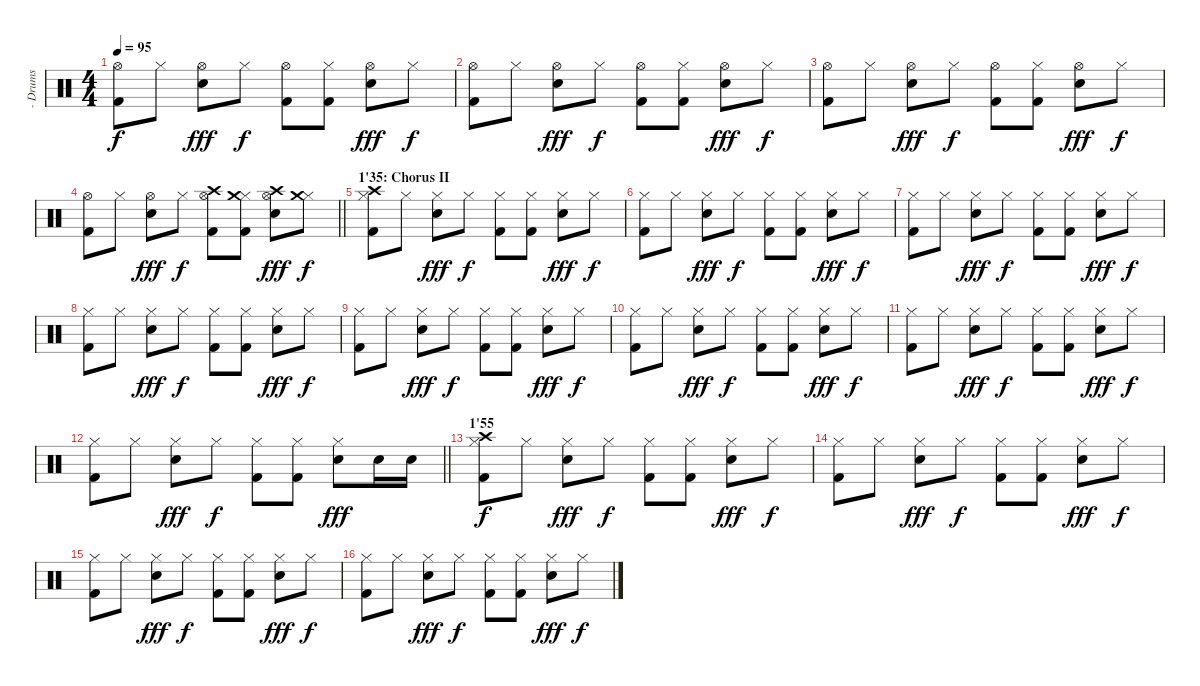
\track ("- Drums" "- Drums") {instrument percussion}
\staff {score}
\articulation defaults
\ts (4 4)
\tempo 95
\clef neutral
\ks c
("Hi-Hat (open)" "Kick (hit) 2").8{dy f} "Hi-Hat (closed)".8 ("Hi-Hat (open)" "Electric Snare (hit)").8{dy fff} "Hi-Hat (closed)".8{dy f} ("Hi-Hat (open)" "Kick (hit) 2").8 ("Hi-Hat (closed)" "Kick (hit) 2").8 ("Hi-Hat (open)" "Electric Snare (hit)").8{dy fff} "Hi-Hat (closed)".8{dy f} |
("Hi-Hat (open)" "Kick (hit) 2").8 "Hi-Hat (closed)".8 ("Hi-Hat (open)" "Electric Snare (hit)").8{dy fff} "Hi-Hat (closed)".8{dy f} ("Hi-Hat (open)" "Kick (hit) 2").8 ("Hi-Hat (closed)" "Kick (hit) 2").8 ("Hi-Hat (open)" "Electric Snare (hit)").8{dy fff} "Hi-Hat (closed)".8{dy f} |
("Hi-Hat (open)" "Kick (hit) 2").8 "Hi-Hat (closed)".8 ("Hi-Hat (open)" "Electric Snare (hit)").8{dy fff} "Hi-Hat (closed)".8{dy f} ("Hi-Hat (open)" "Kick (hit) 2").8 ("Hi-Hat (closed)" "Kick (hit) 2").8 ("Hi-Hat (open)" "Electric Snare (hit)").8{dy fff} "Hi-Hat (closed)".8{dy f} |
\barLineRight lightlight
("Hi-Hat (open)" "Kick (hit) 2").8 "Hi-Hat (closed)".8 ("Hi-Hat (open)" "Electric Snare (hit)").8{dy fff} "Hi-Hat (closed)".8{dy f} ("Hi-Hat (open)" "Crash high (hit)" "Kick (hit) 2").8 ("Hi-Hat (closed)" "Crash medium (hit)" "Kick (hit) 2").8 ("Hi-Hat (open)" "Crash high (hit)" "Electric Snare (hit)").8{dy fff} ("Hi-Hat (closed)" "Crash medium (hit)").8{dy f} |
\section ("" "1'35: Chorus II")
("Hi-Hat (closed)" "Crash high (hit)" "Kick (hit) 2").8 "Hi-Hat (closed)".8 ("Hi-Hat (closed)" "Electric Snare (hit)").8{dy fff} "Hi-Hat (closed)".8{dy f} ("Hi-Hat (closed)" "Kick (hit) 2").8 ("Hi-Hat (closed)" "Kick (hit) 2").8 ("Hi-Hat (closed)" "Electric Snare (hit)").8{dy fff} "Hi-Hat (closed)".8{dy f} |
("Hi-Hat (closed)" "Kick (hit) 2").8 "Hi-Hat (closed)".8 ("Hi-Hat (closed)" "Electric Snare (hit)").8{dy fff} "Hi-Hat (closed)".8{dy f} ("Hi-Hat (closed)" "Kick (hit) 2").8 ("Hi-Hat (closed)" "Kick (hit) 2").8 ("Hi-Hat (closed)" "Electric Snare (hit)").8{dy fff} "Hi-Hat (closed)".8{dy f} |
("Hi-Hat (closed)" "Kick (hit) 2").8 "Hi-Hat (closed)".8 ("Hi-Hat (closed)" "Electric Snare (hit)").8{dy fff} "Hi-Hat (closed)".8{dy f} ("Hi-Hat (closed)" "Kick (hit) 2").8 ("Hi-Hat (closed)" "Kick (hit) 2").8 ("Hi-Hat (closed)" "Electric Snare (hit)").8{dy fff} "Hi-Hat (closed)".8{dy f} |
("Hi-Hat (closed)" "Kick (hit) 2").8 "Hi-Hat (closed)".8 ("Hi-Hat (closed)" "Electric Snare (hit)").8{dy fff} "Hi-Hat (closed)".8{dy f} ("Hi-Hat (closed)" "Kick (hit) 2").8 ("Hi-Hat (closed)" "Kick (hit) 2").8 ("Hi-Hat (closed)" "Electric Snare (hit)").8{dy fff} "Hi-Hat (closed)".8{dy f} |
("Hi-Hat (closed)" "Kick (hit) 2").8 "Hi-Hat (closed)".8 ("Hi-Hat (closed)" "Electric Snare (hit)").8{dy fff} "Hi-Hat (closed)".8{dy f} ("Hi-Hat (closed)" "Kick (hit) 2").8 ("Hi-Hat (closed)" "Kick (hit) 2").8 ("Hi-Hat (closed)" "Electric Snare (hit)").8{dy fff} "Hi-Hat (closed)".8{dy f} |
("Hi-Hat (closed)" "Kick (hit) 2").8 "Hi-Hat (closed)".8 ("Hi-Hat (closed)" "Electric Snare (hit)").8{dy fff} "Hi-Hat (closed)".8{dy f} ("Hi-Hat (closed)" "Kick (hit) 2").8 ("Hi-Hat (closed)" "Kick (hit) 2").8 ("Hi-Hat (closed)" "Electric Snare (hit)").8{dy fff} "Hi-Hat (closed)".8{dy f} |
("Hi-Hat (closed)" "Kick (hit) 2").8 "Hi-Hat (closed)".8 ("Hi-Hat (closed)" "Electric Snare (hit)").8{dy fff} "Hi-Hat (closed)".8{dy f} ("Hi-Hat (closed)" "Kick (hit) 2").8 ("Hi-Hat (closed)" "Kick (hit) 2").8 ("Hi-Hat (closed)" "Electric Snare (hit)").8{dy fff} "Hi-Hat (closed)".8{dy f} |
\barLineRight lightlight
("Hi-Hat (closed)" "Kick (hit) 2").8 "Hi-Hat (closed)".8 ("Hi-Hat (closed)" "Electric Snare (hit)").8{dy fff} "Hi-Hat (closed)".8{dy f} ("Hi-Hat (closed)" "Kick (hit) 2").8 ("Hi-Hat (closed)" "Kick (hit) 2").8 ("Hi-Hat (closed)" "Electric Snare (hit)").8{dy fff} "Electric Snare (hit)".16 "Electric Snare (hit)".16 |
\section ("" "1'55")
("Hi-Hat (closed)" "Crash high (hit)" "Kick (hit) 2").8{dy f} "Hi-Hat (closed)".8 ("Hi-Hat (closed)" "Electric Snare (hit)").8{dy fff} "Hi-Hat (closed)".8{dy f} ("Hi-Hat (closed)" "Kick (hit) 2").8 ("Hi-Hat (closed)" "Kick (hit) 2").8 ("Hi-Hat (closed)" "Electric Snare (hit)").8{dy fff} "Hi-Hat (closed)".8{dy f} |
("Hi-Hat (closed)" "Kick (hit) 2").8 "Hi-Hat (closed)".8 ("Hi-Hat (closed)" "Electric Snare (hit)").8{dy fff} "Hi-Hat (closed)".8{dy f} ("Hi-Hat (closed)" "Kick (hit) 2").8 ("Hi-Hat (closed)" "Kick (hit) 2").8 ("Hi-Hat (closed)" "Electric Snare (hit)").8{dy fff} "Hi-Hat (closed)".8{dy f} |
("Hi-Hat (closed)" "Kick (hit) 2").8 "Hi-Hat (closed)".8 ("Hi-Hat (closed)" "Electric Snare (hit)").8{dy fff} "Hi-Hat (closed)".8{dy f} ("Hi-Hat (closed)" "Kick (hit) 2").8 ("Hi-Hat (closed)" "Kick (hit) 2").8 ("Hi-Hat (closed)" "Electric Snare (hit)").8{dy fff} "Hi-Hat (closed)".8{dy f} |
("Hi-Hat (closed)" "Kick (hit) 2").8 "Hi-Hat (closed)".8 ("Hi-Hat (closed)" "Electric Snare (hit)").8{dy fff} "Hi-Hat (closed)".8{dy f} ("Hi-Hat (closed)" "Kick (hit) 2").8 ("Hi-Hat (closed)" "Kick (hit) 2").8 ("Hi-Hat (closed)" "Electric Snare (hit)").8{dy fff} "Hi-Hat (closed)".8{dy f}
